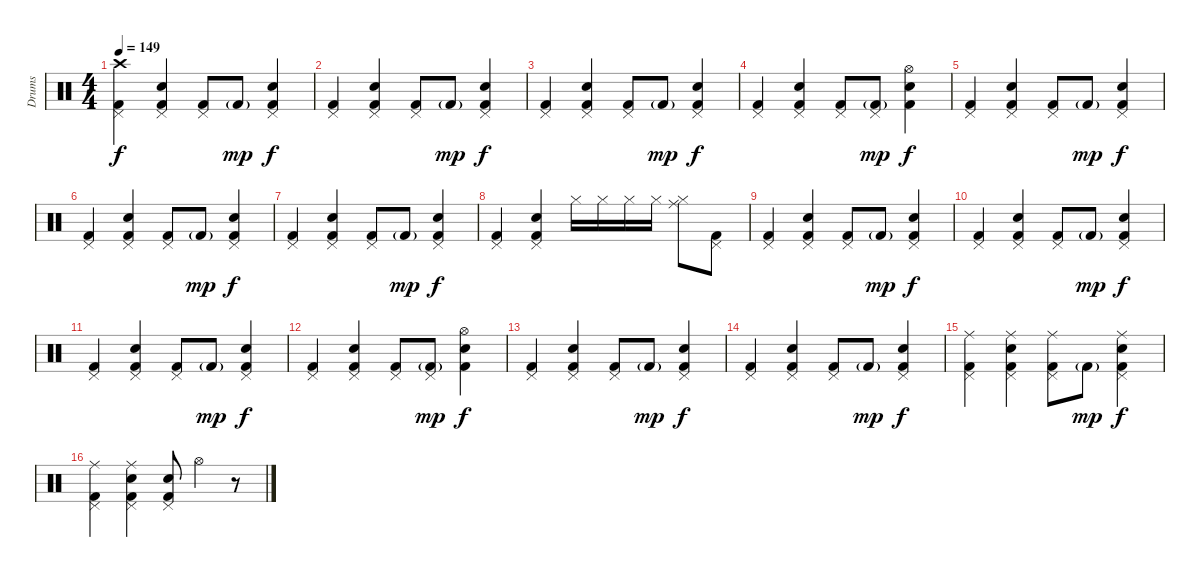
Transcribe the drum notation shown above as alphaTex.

\track ("Drums" "Drums") {instrument percussion}
\staff {score}
\articulation defaults
\ts (4 4)
\tempo 149
\clef neutral
\ks c
("Crash high (hit)" "Kick (hit) 2" "Pedal Hi-Hat (hit)").4{dy f} ("Electric Snare (hit)" "Kick (hit) 2" "Pedal Hi-Hat (hit)").4 ("Kick (hit) 2" "Pedal Hi-Hat (hit)").8 "Kick (hit) 2"{g}.8{dy mp} ("Electric Snare (hit)" "Kick (hit) 2" "Pedal Hi-Hat (hit)").4{dy f} |
("Kick (hit) 2" "Pedal Hi-Hat (hit)").4 ("Electric Snare (hit)" "Kick (hit) 2" "Pedal Hi-Hat (hit)").4 ("Kick (hit) 2" "Pedal Hi-Hat (hit)").8 "Kick (hit) 2"{g}.8{dy mp} ("Electric Snare (hit)" "Kick (hit) 2" "Pedal Hi-Hat (hit)").4{dy f} |
("Kick (hit) 2" "Pedal Hi-Hat (hit)").4 ("Electric Snare (hit)" "Kick (hit) 2" "Pedal Hi-Hat (hit)").4 ("Kick (hit) 2" "Pedal Hi-Hat (hit)").8 "Kick (hit) 2"{g}.8{dy mp} ("Electric Snare (hit)" "Kick (hit) 2" "Pedal Hi-Hat (hit)").4{dy f} |
("Kick (hit) 2" "Pedal Hi-Hat (hit)").4 ("Electric Snare (hit)" "Kick (hit) 2" "Pedal Hi-Hat (hit)").4 ("Kick (hit) 2" "Pedal Hi-Hat (hit)").8 ("Kick (hit) 2"{g} "Pedal Hi-Hat (hit)").8{dy mp} ("Hi-Hat (open)" "Electric Snare (hit)" "Kick (hit) 2").4{dy f} |
("Kick (hit) 2" "Pedal Hi-Hat (hit)").4 ("Electric Snare (hit)" "Kick (hit) 2" "Pedal Hi-Hat (hit)").4 ("Kick (hit) 2" "Pedal Hi-Hat (hit)").8 "Kick (hit) 2"{g}.8{dy mp} ("Electric Snare (hit)" "Kick (hit) 2" "Pedal Hi-Hat (hit)").4{dy f} |
("Kick (hit) 2" "Pedal Hi-Hat (hit)").4 ("Electric Snare (hit)" "Kick (hit) 2" "Pedal Hi-Hat (hit)").4 ("Kick (hit) 2" "Pedal Hi-Hat (hit)").8 "Kick (hit) 2"{g}.8{dy mp} ("Electric Snare (hit)" "Kick (hit) 2" "Pedal Hi-Hat (hit)").4{dy f} |
("Kick (hit) 2" "Pedal Hi-Hat (hit)").4 ("Electric Snare (hit)" "Kick (hit) 2" "Pedal Hi-Hat (hit)").4 ("Kick (hit) 2" "Pedal Hi-Hat (hit)").8 "Kick (hit) 2"{g}.8{dy mp} ("Electric Snare (hit)" "Kick (hit) 2" "Pedal Hi-Hat (hit)").4{dy f} |
("Kick (hit) 2" "Pedal Hi-Hat (hit)").4 ("Electric Snare (hit)" "Kick (hit) 2" "Pedal Hi-Hat (hit)").4 "Hi-Hat (closed)".16 "Hi-Hat (closed)".16 "Hi-Hat (closed)".16 "Hi-Hat (closed)".16 ("Ride (middle)" "Hi-Hat (closed)").8 ("Kick (hit) 2" "Pedal Hi-Hat (hit)").8 |
("Kick (hit) 2" "Pedal Hi-Hat (hit)").4 ("Electric Snare (hit)" "Kick (hit) 2" "Pedal Hi-Hat (hit)").4 ("Kick (hit) 2" "Pedal Hi-Hat (hit)").8 "Kick (hit) 2"{g}.8{dy mp} ("Electric Snare (hit)" "Kick (hit) 2" "Pedal Hi-Hat (hit)").4{dy f} |
("Kick (hit) 2" "Pedal Hi-Hat (hit)").4 ("Electric Snare (hit)" "Kick (hit) 2" "Pedal Hi-Hat (hit)").4 ("Kick (hit) 2" "Pedal Hi-Hat (hit)").8 "Kick (hit) 2"{g}.8{dy mp} ("Electric Snare (hit)" "Kick (hit) 2" "Pedal Hi-Hat (hit)").4{dy f} |
("Kick (hit) 2" "Pedal Hi-Hat (hit)").4 ("Electric Snare (hit)" "Kick (hit) 2" "Pedal Hi-Hat (hit)").4 ("Kick (hit) 2" "Pedal Hi-Hat (hit)").8 "Kick (hit) 2"{g}.8{dy mp} ("Electric Snare (hit)" "Kick (hit) 2" "Pedal Hi-Hat (hit)").4{dy f} |
("Kick (hit) 2" "Pedal Hi-Hat (hit)").4 ("Electric Snare (hit)" "Kick (hit) 2" "Pedal Hi-Hat (hit)").4 ("Kick (hit) 2" "Pedal Hi-Hat (hit)").8 ("Kick (hit) 2"{g} "Pedal Hi-Hat (hit)").8{dy mp} ("Hi-Hat (open)" "Electric Snare (hit)" "Kick (hit) 2").4{dy f} |
("Kick (hit) 2" "Pedal Hi-Hat (hit)").4 ("Electric Snare (hit)" "Kick (hit) 2" "Pedal Hi-Hat (hit)").4 ("Kick (hit) 2" "Pedal Hi-Hat (hit)").8 "Kick (hit) 2"{g}.8{dy mp} ("Electric Snare (hit)" "Kick (hit) 2" "Pedal Hi-Hat (hit)").4{dy f} |
("Kick (hit) 2" "Pedal Hi-Hat (hit)").4 ("Electric Snare (hit)" "Kick (hit) 2" "Pedal Hi-Hat (hit)").4 ("Kick (hit) 2" "Pedal Hi-Hat (hit)").8 "Kick (hit) 2"{g}.8{dy mp} ("Electric Snare (hit)" "Kick (hit) 2" "Pedal Hi-Hat (hit)").4{dy f} |
("Ride (middle)" "Kick (hit) 2" "Pedal Hi-Hat (hit)").4 ("Ride (middle)" "Electric Snare (hit)" "Kick (hit) 2" "Pedal Hi-Hat (hit)").4 ("Ride (middle)" "Kick (hit) 2" "Pedal Hi-Hat (hit)").8 "Kick (hit) 2"{g}.8{dy mp} ("Ride (middle)" "Electric Snare (hit)" "Kick (hit) 2" "Pedal Hi-Hat (hit)").4{dy f} |
("Ride (middle)" "Kick (hit) 2" "Pedal Hi-Hat (hit)").4 ("Ride (middle)" "Electric Snare (hit)" "Kick (hit) 2" "Pedal Hi-Hat (hit)").4 ("Electric Snare (hit)" "Kick (hit) 2" "Pedal Hi-Hat (hit)").8 "Hi-Hat (open)".4 r.8
